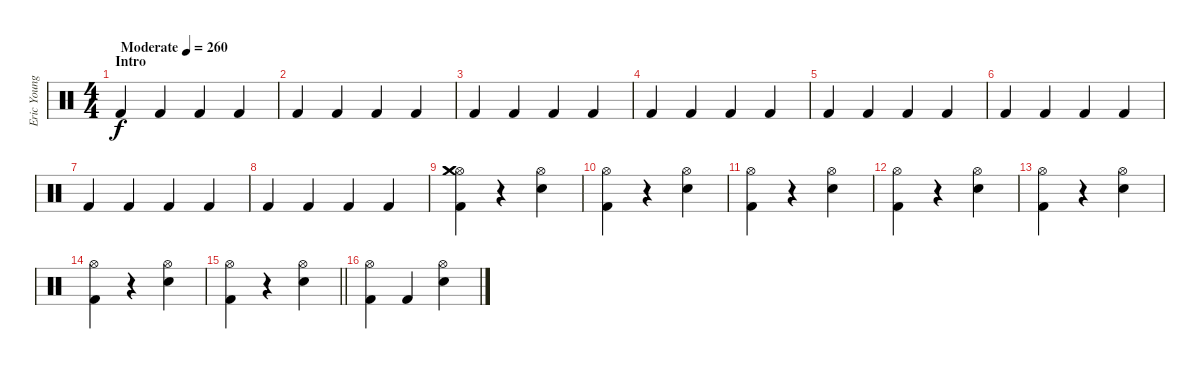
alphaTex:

\track ("Eric Young (Drums)" "Eric Young") {instrument percussion}
\staff {score}
\articulation defaults
\ts (4 4)
\section ("" "Intro")
\tempo (260 "Moderate")
\clef neutral
\ks c "Kick (hit) 2".4{dy f} "Kick (hit) 2".4 "Kick (hit) 2".4 "Kick (hit) 2".4
|
"Kick (hit) 2".4 "Kick (hit) 2".4 "Kick (hit) 2".4 "Kick (hit) 2".4 |
"Kick (hit) 2".4 "Kick (hit) 2".4 "Kick (hit) 2".4 "Kick (hit) 2".4 |
"Kick (hit) 2".4 "Kick (hit) 2".4 "Kick (hit) 2".4 "Kick (hit) 2".4 |
"Kick (hit) 2".4 "Kick (hit) 2".4 "Kick (hit) 2".4 "Kick (hit) 2".4 |
"Kick (hit) 2".4 "Kick (hit) 2".4 "Kick (hit) 2".4 "Kick (hit) 2".4 |
"Kick (hit) 2".4 "Kick (hit) 2".4 "Kick (hit) 2".4 "Kick (hit) 2".4 |
"Kick (hit) 2".4 "Kick (hit) 2".4 "Kick (hit) 2".4 "Kick (hit) 2".4 |
("Hi-Hat (open)" "Kick (hit) 2" "Crash medium (hit)" "Crash medium (hit)").4 r.4 ("Hi-Hat (open)" "Snare (hit) 2").4 |
("Hi-Hat (open)" "Kick (hit) 2").4 r.4 ("Hi-Hat (open)" "Snare (hit) 2").4 |
("Hi-Hat (open)" "Kick (hit) 2").4 r.4 ("Hi-Hat (open)" "Snare (hit) 2").4 |
("Hi-Hat (open)" "Kick (hit) 2").4 r.4 ("Hi-Hat (open)" "Snare (hit) 2").4 |
("Hi-Hat (open)" "Kick (hit) 2").4 r.4 ("Hi-Hat (open)" "Snare (hit) 2").4 |
("Hi-Hat (open)" "Kick (hit) 2").4 r.4 ("Hi-Hat (open)" "Snare (hit) 2").4 |
\barLineRight lightlight
("Hi-Hat (open)" "Kick (hit) 2").4 r.4 ("Hi-Hat (open)" "Snare (hit) 2").4 |
("Hi-Hat (open)" "Kick (hit) 2").4 "Kick (hit) 2".4 ("Hi-Hat (open)" "Snare (hit) 2").4
